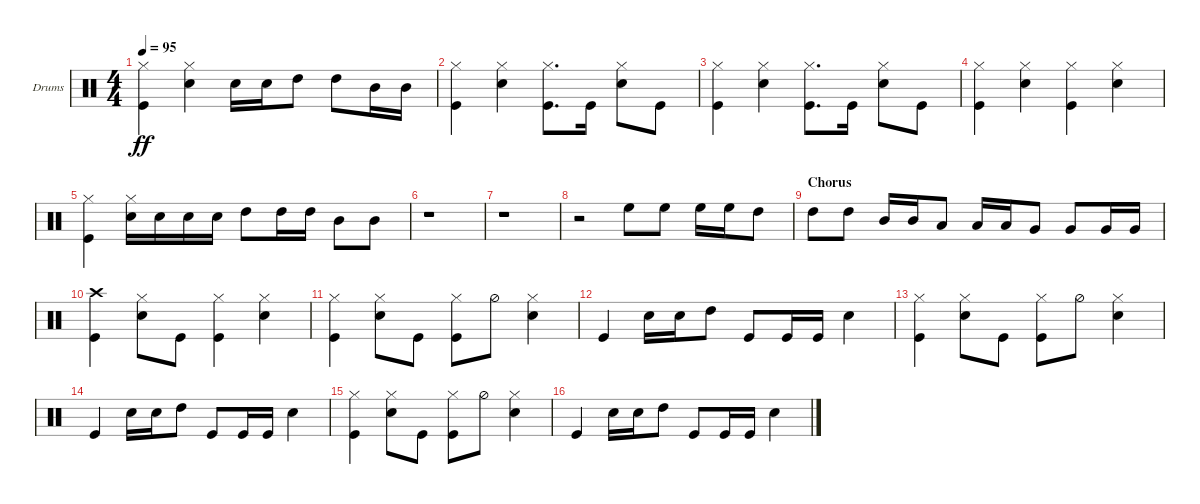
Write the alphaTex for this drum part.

\defaultSystemsLayout 4
\bracketExtendMode groupsimilarinstruments
\firstSystemTrackNameOrientation horizontal
\otherSystemsTrackNameOrientation horizontal
\track ("Drums" "Drums") {instrument percussion}
\staff {score}
\articulation defaults
\ts (4 4)
\tempo 95
\clef neutral
\ks c
("Hi-Hat (closed)" "Kick (hit)").4{dy ff} ("Hi-Hat (closed)" "Snare (hit) 2").4 "Snare (hit) 2".16 "Snare (hit) 2".16 "High Tom (hit)".8 "High Tom (hit)".8 "Mid Tom (hit)".16 "Mid Tom (hit)".16 |
("Hi-Hat (closed)" "Kick (hit)").4 ("Hi-Hat (closed)" "Snare (hit) 2").4 ("Kick (hit)" "Hi-Hat (closed)").8{d} "Kick (hit)".16 ("Hi-Hat (closed)" "Snare (hit) 2").8 "Kick (hit)".8 |
("Hi-Hat (closed)" "Kick (hit)").4 ("Hi-Hat (closed)" "Snare (hit) 2").4 ("Kick (hit)" "Hi-Hat (closed)").8{d} "Kick (hit)".16 ("Hi-Hat (closed)" "Snare (hit) 2").8 "Kick (hit)".8 |
("Hi-Hat (closed)" "Kick (hit)").4 ("Hi-Hat (closed)" "Snare (hit) 2").4 ("Kick (hit)" "Hi-Hat (closed)").4 ("Hi-Hat (closed)" "Snare (hit) 2").4 |
("Hi-Hat (closed)" "Kick (hit)").4 ("Hi-Hat (closed)" "Snare (hit) 2").16 "Snare (hit) 2".16 "Snare (hit) 2".16 "Snare (hit) 2".16 "High Tom (hit)".8 "High Tom (hit)".16 "High Tom (hit)".16 "Mid Tom (hit)".8 "Mid Tom (hit)".8 |
r.1 |
r.1 |
r.2 "High Floor Tom (hit)".8 "High Floor Tom (hit)".8 "High Floor Tom (hit)".16 "High Floor Tom (hit)".16 "High Tom (hit)".8 |
\section ("" "Chorus")
"High Tom (hit)".8 "High Tom (hit)".8 "Mid Tom (hit)".16 "Mid Tom (hit)".16 "Low Tom (hit)".8 "Low Tom (hit)".16 "Low Tom (hit)".16 "Very Low Tom (hit)".8 "Very Low Tom (hit)".8 "Very Low Tom (hit)".16 "Very Low Tom (hit)".16 |
("Kick (hit)" "Crash high (hit)").4 ("Hi-Hat (closed)" "Snare (hit) 2").8 "Kick (hit)".8 ("Kick (hit)" "Hi-Hat (closed)").4 ("Hi-Hat (closed)" "Snare (hit) 2").4 |
("Hi-Hat (closed)" "Kick (hit)").4 ("Hi-Hat (closed)" "Snare (hit) 2").8 "Kick (hit)".8 ("Kick (hit)" "Hi-Hat (closed)").8 "Hi-Hat (half)".8 ("Hi-Hat (closed)" "Snare (hit) 2").4 |
"Kick (hit)".4 "Snare (hit) 2".16 "Snare (hit) 2".16 "High Tom (hit)".8 "Kick (hit)".8 "Kick (hit)".16 "Kick (hit)".16 "Snare (hit) 2".4 |
("Hi-Hat (closed)" "Kick (hit)").4 ("Hi-Hat (closed)" "Snare (hit) 2").8 "Kick (hit)".8 ("Kick (hit)" "Hi-Hat (closed)").8 "Hi-Hat (half)".8 ("Hi-Hat (closed)" "Snare (hit) 2").4 |
"Kick (hit)".4 "Snare (hit) 2".16 "Snare (hit) 2".16 "High Tom (hit)".8 "Kick (hit)".8 "Kick (hit)".16 "Kick (hit)".16 "Snare (hit) 2".4 |
("Hi-Hat (closed)" "Kick (hit)").4 ("Hi-Hat (closed)" "Snare (hit) 2").8 "Kick (hit)".8 ("Kick (hit)" "Hi-Hat (closed)").8 "Hi-Hat (half)".8 ("Hi-Hat (closed)" "Snare (hit) 2").4 |
"Kick (hit)".4 "Snare (hit) 2".16 "Snare (hit) 2".16 "High Tom (hit)".8 "Kick (hit)".8 "Kick (hit)".16 "Kick (hit)".16 "Snare (hit) 2".4
